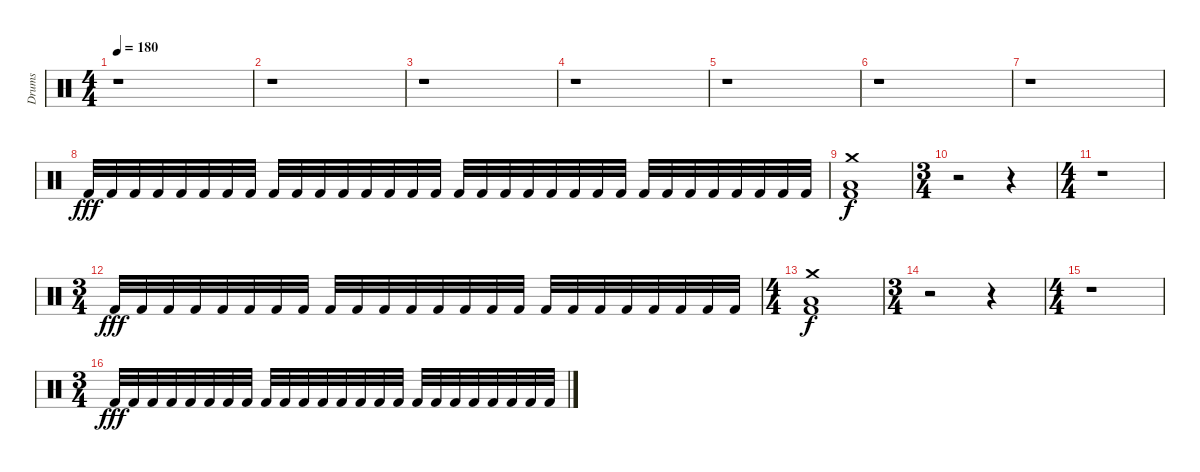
\track ("Drums" "Drums") {instrument percussion}
\staff {score}
\articulation defaults
\ts (4 4)
\tempo 180
\tempo 120
\tempo 180
\clef neutral
\ks c
r.1{dy fff} |
r.1 |
r.1 |
r.1 |
r.1 |
r.1 |
r.1 |
"Kick (hit) 2".32{volume 16} "Kick (hit) 2".32 "Kick (hit) 2".32 "Kick (hit) 2".32 "Kick (hit) 2".32 "Kick (hit) 2".32 "Kick (hit) 2".32 "Kick (hit) 2".32 "Kick (hit) 2".32 "Kick (hit) 2".32 "Kick (hit) 2".32 "Kick (hit) 2".32 "Kick (hit) 2".32 "Kick (hit) 2".32 "Kick (hit) 2".32 "Kick (hit) 2".32 "Kick (hit) 2".32 "Kick (hit) 2".32 "Kick (hit) 2".32 "Kick (hit) 2".32 "Kick (hit) 2".32 "Kick (hit) 2".32 "Kick (hit) 2".32 "Kick (hit) 2".32 "Kick (hit) 2".32 "Kick (hit) 2".32 "Kick (hit) 2".32 "Kick (hit) 2".32 "Kick (hit) 2".32 "Kick (hit) 2".32 "Kick (hit) 2".32 "Kick (hit) 2".32 |
("Crash medium (hit)" "Low Floor Tom (hit)" "Kick (hit) 2").1{dy f} |
\ts (3 4)
r.2 r.4 |
\ts (4 4)
r.1 |
\ts (3 4)
"Kick (hit) 2".32{dy fff volume 16} "Kick (hit) 2".32 "Kick (hit) 2".32 "Kick (hit) 2".32 "Kick (hit) 2".32 "Kick (hit) 2".32 "Kick (hit) 2".32 "Kick (hit) 2".32 "Kick (hit) 2".32 "Kick (hit) 2".32 "Kick (hit) 2".32 "Kick (hit) 2".32 "Kick (hit) 2".32 "Kick (hit) 2".32 "Kick (hit) 2".32 "Kick (hit) 2".32 "Kick (hit) 2".32 "Kick (hit) 2".32 "Kick (hit) 2".32 "Kick (hit) 2".32 "Kick (hit) 2".32 "Kick (hit) 2".32 "Kick (hit) 2".32 "Kick (hit) 2".32 |
\ts (4 4)
("Crash medium (hit)" "Low Floor Tom (hit)" "Kick (hit) 2").1{dy f} |
\ts (3 4)
r.2 r.4 |
\ts (4 4)
r.1 |
\ts (3 4)
"Kick (hit) 2".32{dy fff volume 16} "Kick (hit) 2".32 "Kick (hit) 2".32 "Kick (hit) 2".32 "Kick (hit) 2".32 "Kick (hit) 2".32 "Kick (hit) 2".32 "Kick (hit) 2".32 "Kick (hit) 2".32 "Kick (hit) 2".32 "Kick (hit) 2".32 "Kick (hit) 2".32 "Kick (hit) 2".32 "Kick (hit) 2".32 "Kick (hit) 2".32 "Kick (hit) 2".32 "Kick (hit) 2".32 "Kick (hit) 2".32 "Kick (hit) 2".32 "Kick (hit) 2".32 "Kick (hit) 2".32 "Kick (hit) 2".32 "Kick (hit) 2".32 "Kick (hit) 2".32
